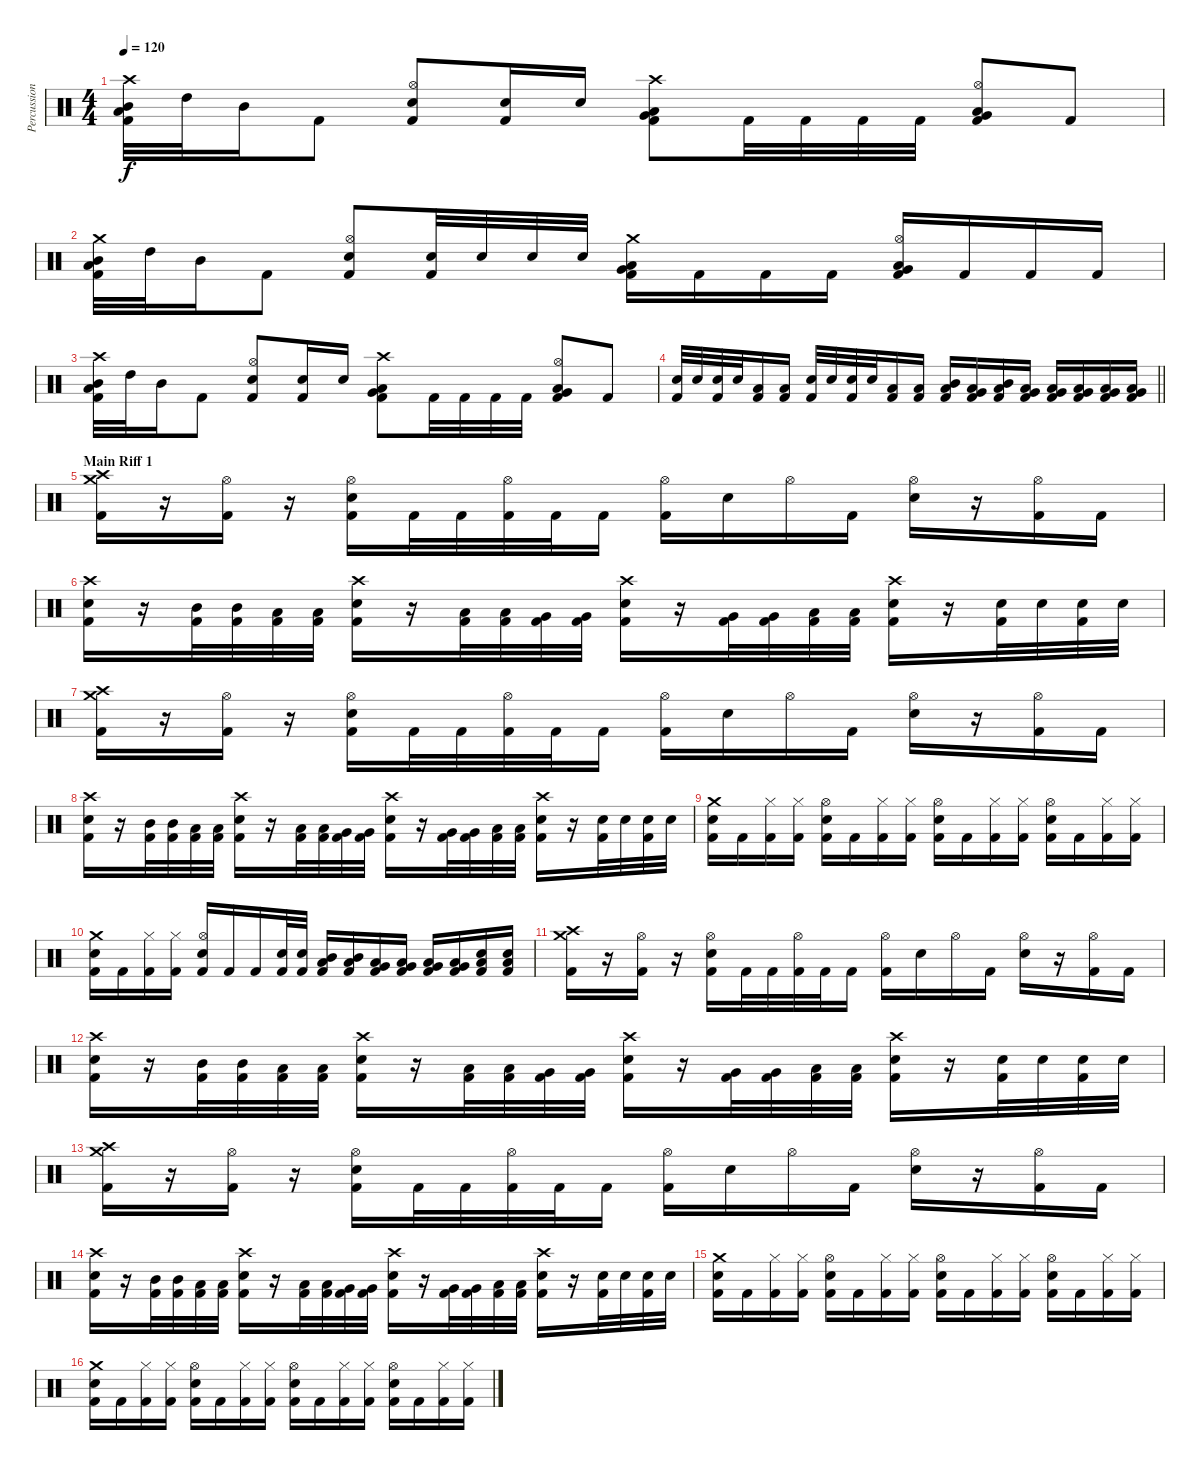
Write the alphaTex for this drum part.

\track ("Percussion" "Percussion") {instrument percussion}
\staff {score}
\articulation defaults
\ts (4 4)
\tempo 120
\clef neutral
\ks c
("Crash high (hit)" "Mid Tom (hit)" "Low Tom (hit)" "Kick (hit) 2").32{dy f} "High Tom (hit)".32 "Mid Tom (hit)".16 "Kick (hit) 2".8 ("Hi-Hat (open)" "Electric Snare (hit)" "Kick (hit) 2").8 ("Electric Snare (hit)" "Kick (hit) 2").16 "Electric Snare (hit)".16 ("Crash high (hit)" "Low Tom (hit)" "Very Low Tom (hit)" "Kick (hit) 2").8 "Kick (hit) 2".32 "Kick (hit) 2".32 "Kick (hit) 2".32 "Kick (hit) 2".32 ("Hi-Hat (open)" "Low Tom (hit)" "Very Low Tom (hit)" "Kick (hit) 2").8 "Kick (hit) 2".8 |
("Crash medium (hit)" "Mid Tom (hit)" "Low Tom (hit)" "Kick (hit) 2").32 "High Tom (hit)".32 "Mid Tom (hit)".16 "Kick (hit) 2".8 ("Hi-Hat (open)" "Electric Snare (hit)" "Kick (hit) 2").8 ("Electric Snare (hit)" "Kick (hit) 2").32 "Electric Snare (hit)".32 "Electric Snare (hit)".32 "Electric Snare (hit)".32 ("Crash medium (hit)" "Low Tom (hit)" "Very Low Tom (hit)" "Kick (hit) 2").16 "Kick (hit) 2".16 "Kick (hit) 2".16 "Kick (hit) 2".16 ("Hi-Hat (open)" "Low Tom (hit)" "Very Low Tom (hit)" "Kick (hit) 2").16 "Kick (hit) 2".16 "Kick (hit) 2".16 "Kick (hit) 2".16 |
("Crash high (hit)" "Mid Tom (hit)" "Low Tom (hit)" "Kick (hit) 2").32 "High Tom (hit)".32 "Mid Tom (hit)".16 "Kick (hit) 2".8 ("Hi-Hat (open)" "Electric Snare (hit)" "Kick (hit) 2").8 ("Electric Snare (hit)" "Kick (hit) 2").16 "Electric Snare (hit)".16 ("Crash high (hit)" "Low Tom (hit)" "Very Low Tom (hit)" "Kick (hit) 2").8 "Kick (hit) 2".32 "Kick (hit) 2".32 "Kick (hit) 2".32 "Kick (hit) 2".32 ("Hi-Hat (open)" "Low Tom (hit)" "Very Low Tom (hit)" "Kick (hit) 2").8 "Kick (hit) 2".8 |
\barLineRight lightlight
("Electric Snare (hit)" "Kick (hit) 2").32 "Electric Snare (hit)".32 ("Electric Snare (hit)" "Kick (hit) 2").32 "Electric Snare (hit)".32 ("Low Floor Tom (hit)" "Kick (hit) 2").16 ("Low Floor Tom (hit)" "Kick (hit) 2").16 ("Electric Snare (hit)" "Kick (hit) 2").32 "Electric Snare (hit)".32 ("Electric Snare (hit)" "Kick (hit) 2").32 "Electric Snare (hit)".32 ("Low Floor Tom (hit)" "Kick (hit) 2").16 ("Low Floor Tom (hit)" "Kick (hit) 2").16 ("Mid Tom (hit)" "Low Tom (hit)" "Kick (hit) 2").16 ("Low Tom (hit)" "Very Low Tom (hit)" "Kick (hit) 2").16 ("Mid Tom (hit)" "Low Tom (hit)" "Kick (hit) 2").16 ("Low Tom (hit)" "Very Low Tom (hit)" "Kick (hit) 2").16 ("Low Tom (hit)" "Very Low Tom (hit)" "Kick (hit) 2").16 ("Very Low Tom (hit)" "Low Floor Tom (hit)" "Kick (hit) 2").16 ("Low Tom (hit)" "Very Low Tom (hit)" "Kick (hit) 2").16 ("Very Low Tom (hit)" "Low Floor Tom (hit)" "Kick (hit) 2").16 |
\section ("" "Main Riff 1")
("Crash medium (hit)" "Crash high (hit)" "Kick (hit) 2").16{volume 16} r.16 ("Hi-Hat (open)" "Kick (hit) 2").16 r.16 ("Hi-Hat (open)" "Electric Snare (hit)" "Kick (hit) 2").16 "Kick (hit) 2".32 "Kick (hit) 2".32 ("Hi-Hat (open)" "Kick (hit) 2").32 "Kick (hit) 2".32 "Kick (hit) 2".16 ("Hi-Hat (open)" "Kick (hit) 2").16 "Electric Snare (hit)".16 "Hi-Hat (open)".16 "Kick (hit) 2".16 ("Hi-Hat (open)" "Electric Snare (hit)").16 r.16 ("Hi-Hat (open)" "Kick (hit) 2").16 "Kick (hit) 2".16 |
("Crash high (hit)" "Electric Snare (hit)" "Kick (hit) 2").16 r.16 ("Mid Tom (hit)" "Kick (hit) 2").32 ("Mid Tom (hit)" "Kick (hit) 2").32 ("Low Tom (hit)" "Kick (hit) 2").32 ("Low Tom (hit)" "Kick (hit) 2").32 ("Crash high (hit)" "Electric Snare (hit)" "Kick (hit) 2").16 r.16 ("Low Tom (hit)" "Kick (hit) 2").32 ("Low Tom (hit)" "Kick (hit) 2").32 ("Very Low Tom (hit)" "Kick (hit) 2").32 ("Very Low Tom (hit)" "Kick (hit) 2").32 ("Crash high (hit)" "Electric Snare (hit)" "Kick (hit) 2").16 r.16 ("Very Low Tom (hit)" "Kick (hit) 2").32 ("Very Low Tom (hit)" "Kick (hit) 2").32 ("Low Floor Tom (hit)" "Kick (hit) 2").32 ("Low Floor Tom (hit)" "Kick (hit) 2").32 ("Crash high (hit)" "Electric Snare (hit)" "Kick (hit) 2").16 r.16 ("Electric Snare (hit)" "Kick (hit) 2").32 "Electric Snare (hit)".32 ("Electric Snare (hit)" "Kick (hit) 2").32 "Electric Snare (hit)".32 |
("Crash medium (hit)" "Crash high (hit)" "Kick (hit) 2").16 r.16 ("Hi-Hat (open)" "Kick (hit) 2").16 r.16 ("Hi-Hat (open)" "Electric Snare (hit)" "Kick (hit) 2").16 "Kick (hit) 2".32 "Kick (hit) 2".32 ("Hi-Hat (open)" "Kick (hit) 2").32 "Kick (hit) 2".32 "Kick (hit) 2".16 ("Hi-Hat (open)" "Kick (hit) 2").16 "Electric Snare (hit)".16 "Hi-Hat (open)".16 "Kick (hit) 2".16 ("Hi-Hat (open)" "Electric Snare (hit)").16 r.16 ("Hi-Hat (open)" "Kick (hit) 2").16 "Kick (hit) 2".16 |
("Crash high (hit)" "Electric Snare (hit)" "Kick (hit) 2").16 r.16 ("Mid Tom (hit)" "Kick (hit) 2").32 ("Mid Tom (hit)" "Kick (hit) 2").32 ("Low Tom (hit)" "Kick (hit) 2").32 ("Low Tom (hit)" "Kick (hit) 2").32 ("Crash high (hit)" "Electric Snare (hit)" "Kick (hit) 2").16 r.16 ("Low Tom (hit)" "Kick (hit) 2").32 ("Low Tom (hit)" "Kick (hit) 2").32 ("Very Low Tom (hit)" "Kick (hit) 2").32 ("Very Low Tom (hit)" "Kick (hit) 2").32 ("Crash high (hit)" "Electric Snare (hit)" "Kick (hit) 2").16 r.16 ("Very Low Tom (hit)" "Kick (hit) 2").32 ("Very Low Tom (hit)" "Kick (hit) 2").32 ("Low Floor Tom (hit)" "Kick (hit) 2").32 ("Low Floor Tom (hit)" "Kick (hit) 2").32 ("Crash high (hit)" "Electric Snare (hit)" "Kick (hit) 2").16 r.16 ("Electric Snare (hit)" "Kick (hit) 2").32 "Electric Snare (hit)".32 ("Electric Snare (hit)" "Kick (hit) 2").32 "Electric Snare (hit)".32 |
("Crash medium (hit)" "Electric Snare (hit)" "Kick (hit) 2").16 "Kick (hit) 2".16 ("Hi-Hat (closed)" "Kick (hit) 2").16 ("Hi-Hat (closed)" "Kick (hit) 2").16 ("Hi-Hat (open)" "Electric Snare (hit)" "Kick (hit) 2").16 "Kick (hit) 2".16 ("Hi-Hat (closed)" "Kick (hit) 2").16 ("Hi-Hat (closed)" "Kick (hit) 2").16 ("Hi-Hat (open)" "Electric Snare (hit)" "Kick (hit) 2").16 "Kick (hit) 2".16 ("Hi-Hat (closed)" "Kick (hit) 2").16 ("Hi-Hat (closed)" "Kick (hit) 2").16 ("Hi-Hat (open)" "Electric Snare (hit)" "Kick (hit) 2").16 "Kick (hit) 2".16 ("Hi-Hat (closed)" "Kick (hit) 2").16 ("Hi-Hat (closed)" "Kick (hit) 2").16 |
("Crash medium (hit)" "Electric Snare (hit)" "Kick (hit) 2").16 "Kick (hit) 2".16 ("Hi-Hat (closed)" "Kick (hit) 2").16 ("Hi-Hat (closed)" "Kick (hit) 2").16 ("Hi-Hat (open)" "Electric Snare (hit)" "Kick (hit) 2").16 "Kick (hit) 2".16 "Kick (hit) 2".16 ("Electric Snare (hit)" "Kick (hit) 2").32 ("Electric Snare (hit)" "Kick (hit) 2").32 ("Mid Tom (hit)" "Low Tom (hit)" "Kick (hit) 2").16 ("Mid Tom (hit)" "Low Tom (hit)" "Kick (hit) 2").16 ("Low Tom (hit)" "Very Low Tom (hit)" "Kick (hit) 2").16 ("Low Tom (hit)" "Very Low Tom (hit)" "Kick (hit) 2").16 ("Very Low Tom (hit)" "Low Floor Tom (hit)" "Kick (hit) 2").16 ("Very Low Tom (hit)" "Low Floor Tom (hit)" "Kick (hit) 2").16 ("Low Floor Tom (hit)" "Electric Snare (hit)" "Kick (hit) 2").16 ("Low Floor Tom (hit)" "Electric Snare (hit)" "Kick (hit) 2").16 |
("Crash medium (hit)" "Crash high (hit)" "Kick (hit) 2").16 r.16 ("Hi-Hat (open)" "Kick (hit) 2").16 r.16 ("Hi-Hat (open)" "Electric Snare (hit)" "Kick (hit) 2").16 "Kick (hit) 2".32 "Kick (hit) 2".32 ("Hi-Hat (open)" "Kick (hit) 2").32 "Kick (hit) 2".32 "Kick (hit) 2".16 ("Hi-Hat (open)" "Kick (hit) 2").16 "Electric Snare (hit)".16 "Hi-Hat (open)".16 "Kick (hit) 2".16 ("Hi-Hat (open)" "Electric Snare (hit)").16 r.16 ("Hi-Hat (open)" "Kick (hit) 2").16 "Kick (hit) 2".16 |
("Crash high (hit)" "Electric Snare (hit)" "Kick (hit) 2").16 r.16 ("Mid Tom (hit)" "Kick (hit) 2").32 ("Mid Tom (hit)" "Kick (hit) 2").32 ("Low Tom (hit)" "Kick (hit) 2").32 ("Low Tom (hit)" "Kick (hit) 2").32 ("Crash high (hit)" "Electric Snare (hit)" "Kick (hit) 2").16 r.16 ("Low Tom (hit)" "Kick (hit) 2").32 ("Low Tom (hit)" "Kick (hit) 2").32 ("Very Low Tom (hit)" "Kick (hit) 2").32 ("Very Low Tom (hit)" "Kick (hit) 2").32 ("Crash high (hit)" "Electric Snare (hit)" "Kick (hit) 2").16 r.16 ("Very Low Tom (hit)" "Kick (hit) 2").32 ("Very Low Tom (hit)" "Kick (hit) 2").32 ("Low Floor Tom (hit)" "Kick (hit) 2").32 ("Low Floor Tom (hit)" "Kick (hit) 2").32 ("Crash high (hit)" "Electric Snare (hit)" "Kick (hit) 2").16 r.16 ("Electric Snare (hit)" "Kick (hit) 2").32 "Electric Snare (hit)".32 ("Electric Snare (hit)" "Kick (hit) 2").32 "Electric Snare (hit)".32 |
("Crash medium (hit)" "Crash high (hit)" "Kick (hit) 2").16 r.16 ("Hi-Hat (open)" "Kick (hit) 2").16 r.16 ("Hi-Hat (open)" "Electric Snare (hit)" "Kick (hit) 2").16 "Kick (hit) 2".32 "Kick (hit) 2".32 ("Hi-Hat (open)" "Kick (hit) 2").32 "Kick (hit) 2".32 "Kick (hit) 2".16 ("Hi-Hat (open)" "Kick (hit) 2").16 "Electric Snare (hit)".16 "Hi-Hat (open)".16 "Kick (hit) 2".16 ("Hi-Hat (open)" "Electric Snare (hit)").16 r.16 ("Hi-Hat (open)" "Kick (hit) 2").16 "Kick (hit) 2".16 |
("Crash high (hit)" "Electric Snare (hit)" "Kick (hit) 2").16 r.16 ("Mid Tom (hit)" "Kick (hit) 2").32 ("Mid Tom (hit)" "Kick (hit) 2").32 ("Low Tom (hit)" "Kick (hit) 2").32 ("Low Tom (hit)" "Kick (hit) 2").32 ("Crash high (hit)" "Electric Snare (hit)" "Kick (hit) 2").16 r.16 ("Low Tom (hit)" "Kick (hit) 2").32 ("Low Tom (hit)" "Kick (hit) 2").32 ("Very Low Tom (hit)" "Kick (hit) 2").32 ("Very Low Tom (hit)" "Kick (hit) 2").32 ("Crash high (hit)" "Electric Snare (hit)" "Kick (hit) 2").16 r.16 ("Very Low Tom (hit)" "Kick (hit) 2").32 ("Very Low Tom (hit)" "Kick (hit) 2").32 ("Low Floor Tom (hit)" "Kick (hit) 2").32 ("Low Floor Tom (hit)" "Kick (hit) 2").32 ("Crash high (hit)" "Electric Snare (hit)" "Kick (hit) 2").16 r.16 ("Electric Snare (hit)" "Kick (hit) 2").32 "Electric Snare (hit)".32 ("Electric Snare (hit)" "Kick (hit) 2").32 "Electric Snare (hit)".32 |
("Crash medium (hit)" "Electric Snare (hit)" "Kick (hit) 2").16 "Kick (hit) 2".16 ("Hi-Hat (closed)" "Kick (hit) 2").16 ("Hi-Hat (closed)" "Kick (hit) 2").16 ("Hi-Hat (open)" "Electric Snare (hit)" "Kick (hit) 2").16 "Kick (hit) 2".16 ("Hi-Hat (closed)" "Kick (hit) 2").16 ("Hi-Hat (closed)" "Kick (hit) 2").16 ("Hi-Hat (open)" "Electric Snare (hit)" "Kick (hit) 2").16 "Kick (hit) 2".16 ("Hi-Hat (closed)" "Kick (hit) 2").16 ("Hi-Hat (closed)" "Kick (hit) 2").16 ("Hi-Hat (open)" "Electric Snare (hit)" "Kick (hit) 2").16 "Kick (hit) 2".16 ("Hi-Hat (closed)" "Kick (hit) 2").16 ("Hi-Hat (closed)" "Kick (hit) 2").16 |
("Crash medium (hit)" "Electric Snare (hit)" "Kick (hit) 2").16 "Kick (hit) 2".16 ("Hi-Hat (closed)" "Kick (hit) 2").16 ("Hi-Hat (closed)" "Kick (hit) 2").16 ("Hi-Hat (open)" "Electric Snare (hit)" "Kick (hit) 2").16 "Kick (hit) 2".16 ("Hi-Hat (closed)" "Kick (hit) 2").16 ("Hi-Hat (closed)" "Kick (hit) 2").16 ("Hi-Hat (open)" "Electric Snare (hit)" "Kick (hit) 2").16 "Kick (hit) 2".16 ("Hi-Hat (closed)" "Kick (hit) 2").16 ("Hi-Hat (closed)" "Kick (hit) 2").16 ("Hi-Hat (open)" "Electric Snare (hit)" "Kick (hit) 2").16 "Kick (hit) 2".16 ("Hi-Hat (closed)" "Kick (hit) 2").16 ("Hi-Hat (closed)" "Kick (hit) 2").16
